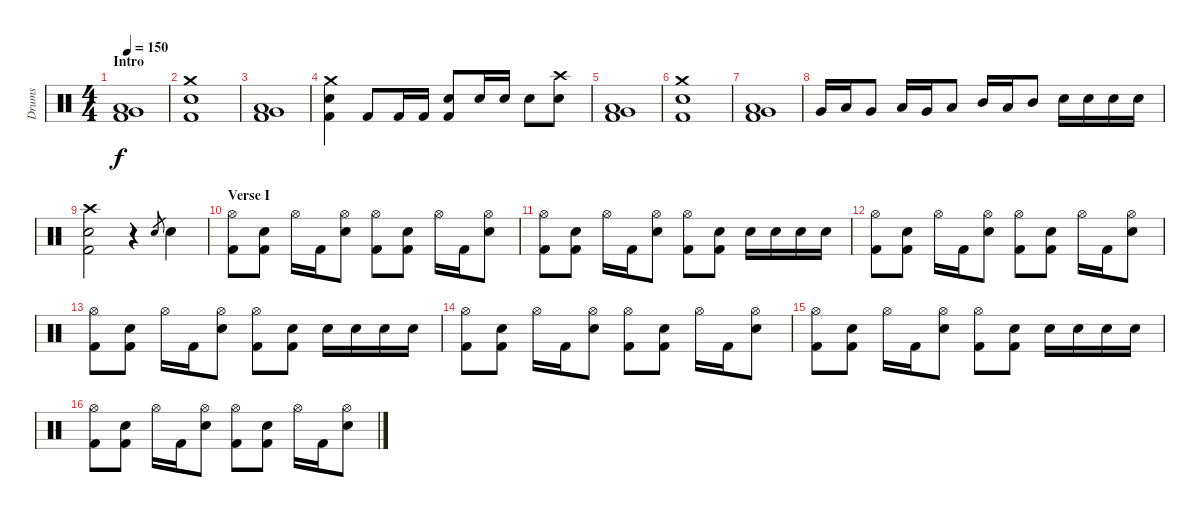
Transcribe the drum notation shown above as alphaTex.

\track ("Drums" "Drums") {instrument percussion}
\staff {score}
\articulation defaults
\ts (4 4)
\section ("" "Intro")
\tempo 150
\clef neutral
\ks c
("Kick (hit) 2" "Low Tom (hit)" "Very Low Tom (hit)").1{dy f} |
("Kick (hit) 2" "Snare (hit) 2" "Crash medium (hit)").1 |
("Kick (hit) 2" "Low Tom (hit)" "Very Low Tom (hit)").1 |
("Kick (hit) 2" "Snare (hit) 2" "Crash medium (hit)").4 "Kick (hit) 2".8 "Kick (hit) 2".16 "Kick (hit) 2".16 ("Kick (hit) 2" "Snare (hit) 2").8 "Snare (hit) 2".16 "Snare (hit) 2".16 "Snare (hit) 2".8 ("Snare (hit) 2" "Crash high (hit)").8 |
("Kick (hit) 2" "Low Tom (hit)" "Very Low Tom (hit)").1 |
("Kick (hit) 2" "Snare (hit) 2" "Crash medium (hit)").1 |
("Kick (hit) 2" "Low Tom (hit)" "Very Low Tom (hit)").1 |
"Very Low Tom (hit)".16 "Low Floor Tom (hit)".16 "Very Low Tom (hit)".8 "Low Tom (hit)".16 "Very Low Tom (hit)".16 "Low Tom (hit)".8 "Mid Tom (hit)".16 "Low Tom (hit)".16 "Mid Tom (hit)".8 "Snare (hit) 2".16 "Snare (hit) 2".16 "Snare (hit) 2".16 "Snare (hit) 2".16 |
("Kick (hit) 2" "Snare (hit) 2" "Crash high (hit)").2 r.4 "Snare (hit) 2".8{gr} "Snare (hit) 2".4 |
\section ("" "Verse I")
("Kick (hit) 2" "Hi-Hat (open)").8 ("Kick (hit) 2" "Snare (hit) 2").8 "Hi-Hat (open)".16 "Kick (hit) 2".16 ("Snare (hit) 2" "Hi-Hat (open)").8 ("Kick (hit) 2" "Hi-Hat (open)").8 ("Kick (hit) 2" "Snare (hit) 2").8 "Hi-Hat (open)".16 "Kick (hit) 2".16 ("Snare (hit) 2" "Hi-Hat (open)").8 |
("Kick (hit) 2" "Hi-Hat (open)").8 ("Kick (hit) 2" "Snare (hit) 2").8 "Hi-Hat (open)".16 "Kick (hit) 2".16 ("Snare (hit) 2" "Hi-Hat (open)").8 ("Kick (hit) 2" "Hi-Hat (open)").8 ("Kick (hit) 2" "Snare (hit) 2").8 "Snare (hit) 2".16 "Snare (hit) 2".16 "Snare (hit) 2".16 "Snare (hit) 2".16 |
("Kick (hit) 2" "Hi-Hat (open)").8 ("Kick (hit) 2" "Snare (hit) 2").8 "Hi-Hat (open)".16 "Kick (hit) 2".16 ("Snare (hit) 2" "Hi-Hat (open)").8 ("Kick (hit) 2" "Hi-Hat (open)").8 ("Kick (hit) 2" "Snare (hit) 2").8 "Hi-Hat (open)".16 "Kick (hit) 2".16 ("Snare (hit) 2" "Hi-Hat (open)").8 |
("Kick (hit) 2" "Hi-Hat (open)").8 ("Kick (hit) 2" "Snare (hit) 2").8 "Hi-Hat (open)".16 "Kick (hit) 2".16 ("Snare (hit) 2" "Hi-Hat (open)").8 ("Kick (hit) 2" "Hi-Hat (open)").8 ("Kick (hit) 2" "Snare (hit) 2").8 "Snare (hit) 2".16 "Snare (hit) 2".16 "Snare (hit) 2".16 "Snare (hit) 2".16 |
("Kick (hit) 2" "Hi-Hat (open)").8 ("Kick (hit) 2" "Snare (hit) 2").8 "Hi-Hat (open)".16 "Kick (hit) 2".16 ("Snare (hit) 2" "Hi-Hat (open)").8 ("Kick (hit) 2" "Hi-Hat (open)").8 ("Kick (hit) 2" "Snare (hit) 2").8 "Hi-Hat (open)".16 "Kick (hit) 2".16 ("Snare (hit) 2" "Hi-Hat (open)").8 |
("Kick (hit) 2" "Hi-Hat (open)").8 ("Kick (hit) 2" "Snare (hit) 2").8 "Hi-Hat (open)".16 "Kick (hit) 2".16 ("Snare (hit) 2" "Hi-Hat (open)").8 ("Kick (hit) 2" "Hi-Hat (open)").8 ("Kick (hit) 2" "Snare (hit) 2").8 "Snare (hit) 2".16 "Snare (hit) 2".16 "Snare (hit) 2".16 "Snare (hit) 2".16 |
("Kick (hit) 2" "Hi-Hat (open)").8 ("Kick (hit) 2" "Snare (hit) 2").8 "Hi-Hat (open)".16 "Kick (hit) 2".16 ("Snare (hit) 2" "Hi-Hat (open)").8 ("Kick (hit) 2" "Hi-Hat (open)").8 ("Kick (hit) 2" "Snare (hit) 2").8 "Hi-Hat (open)".16 "Kick (hit) 2".16 ("Snare (hit) 2" "Hi-Hat (open)").8
